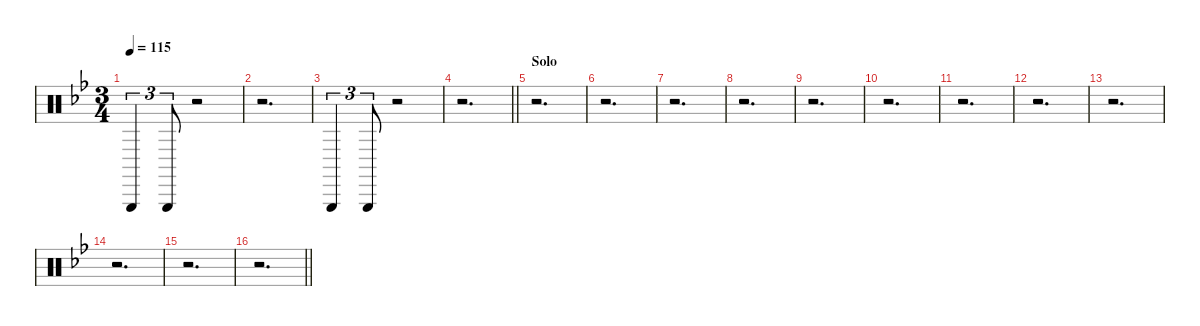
\defaultSystemsLayout 4
\hideDynamics
\bracketExtendMode nobrackets
\singleTrackTrackNamePolicy hidden
\multiTrackTrackNamePolicy hidden
\firstSystemTrackNameMode fullname
\firstSystemTrackNameOrientation horizontal
\otherSystemsTrackNameOrientation horizontal
\track ("Percussion" "drm.") {defaultSystemsLayout 16 instrument percussion}
\staff {score}
\articulation defaults
\ts (3 4)
\tempo 115
\clef neutral
\ks gminor "Triangle (hit)"{acc forcenatural}.4{tu (3 2) dy mf beam Up} "Triangle (hit)"{acc forcenatural}.8{tu (3 2) dy p beam Up}
r.2{beam Up} |
r.2{d beam Down} |
"Triangle (hit)"{acc forcenatural}.4{tu (3 2) dy mf beam Up} "Triangle (hit)"{acc forcenatural}.8{tu (3 2) dy p beam Up} r.2{beam Up} |
\barLineRight lightlight
r.2{d beam Down} |
\section ("" "Solo")
r.2{d beam Down} |
r.2{d beam Down} |
r.2{d beam Down} |
r.2{d beam Down} |
r.2{d beam Down} |
r.2{d beam Down} |
r.2{d beam Down} |
r.2{d beam Down} |
r.2{d beam Down} |
r.2{d beam Down} |
r.2{d beam Down} |
\barLineRight lightlight
r.2{d beam Down}
